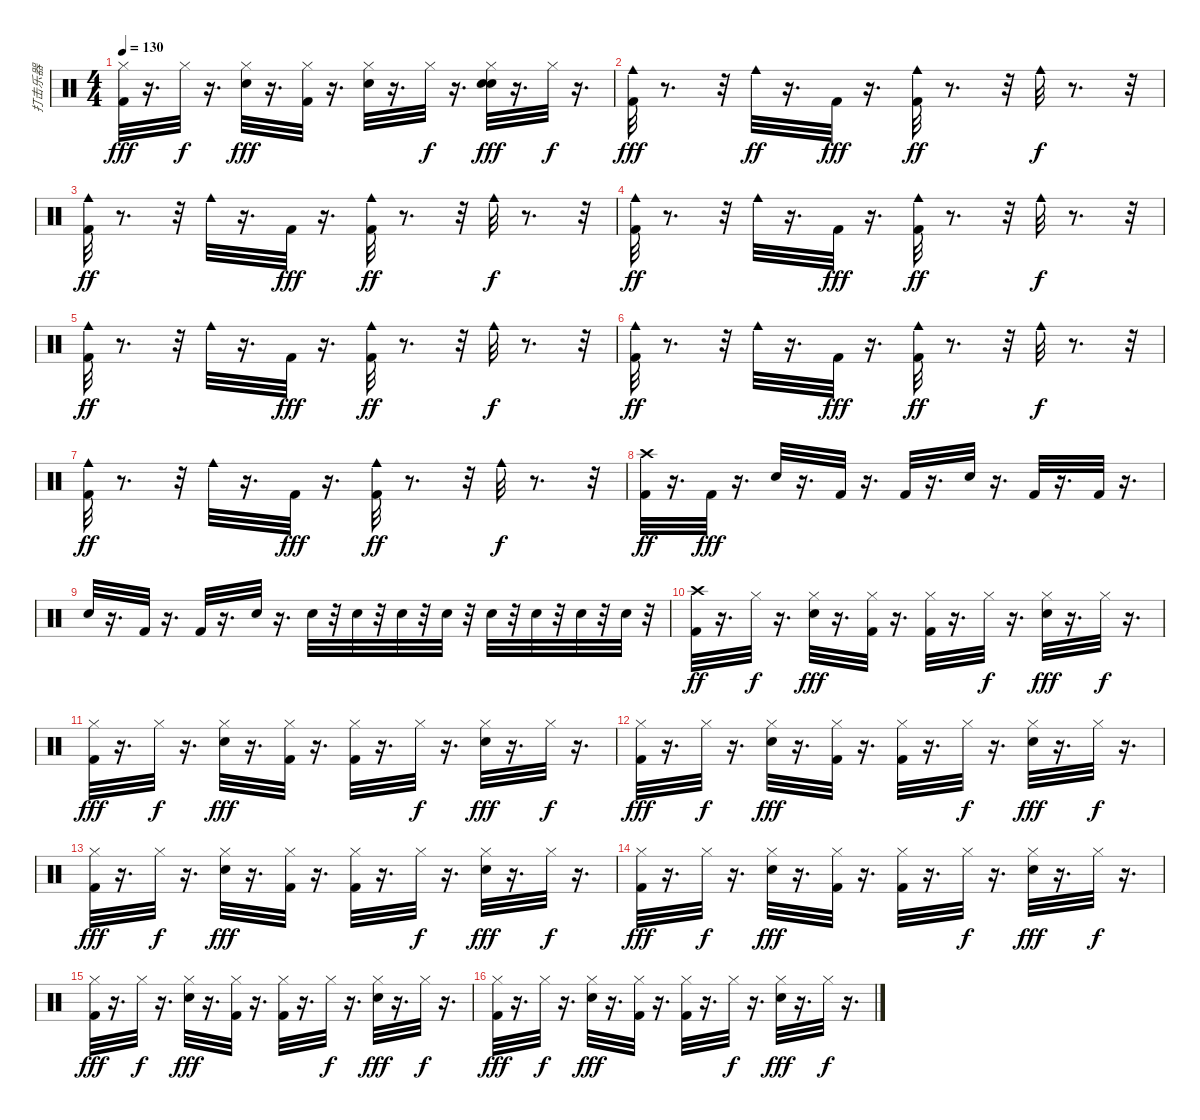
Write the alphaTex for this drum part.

\track ("打击乐器" "打击乐器") {instrument percussion}
\staff {score}
\articulation defaults
\ts (4 4)
\tempo 130
\clef neutral
\ks c
("Kick (hit) 2" "Hi-Hat (closed)").32{dy fff} r.16{d} "Hi-Hat (closed)".32{dy f} r.16{d} ("Hi-Hat (closed)" "Electric Snare (hit)").32{dy fff} r.16{d} ("Kick (hit) 2" "Hi-Hat (closed)").32 r.16{d} ("Electric Snare (hit)" "Hi-Hat (closed)").32 r.16{d} "Hi-Hat (closed)".32{dy f} r.16{d} ("Electric Snare (hit)" "Hi-Hat (closed)" "Electric Snare (hit)").32{dy fff} r.16{d} "Hi-Hat (closed)".32{dy f} r.16{d} |
("Cowbell medium (hit)" "Kick (hit) 2").32{dy fff} r.8{d} r.32 "Cowbell medium (hit)".32{dy ff} r.16{d} "Kick (hit) 2".32{dy fff} r.16{d} ("Kick (hit) 2" "Cowbell medium (hit)").32{dy ff} r.8{d} r.32 "Cowbell medium (hit)".32{dy f} r.8{d} r.32 |
("Kick (hit) 2" "Cowbell medium (hit)").32{dy ff} r.8{d} r.32 "Cowbell medium (hit)".32 r.16{d} "Kick (hit) 2".32{dy fff} r.16{d} ("Kick (hit) 2" "Cowbell medium (hit)").32{dy ff} r.8{d} r.32 "Cowbell medium (hit)".32{dy f} r.8{d} r.32 |
("Kick (hit) 2" "Cowbell medium (hit)").32{dy ff} r.8{d} r.32 "Cowbell medium (hit)".32 r.16{d} "Kick (hit) 2".32{dy fff} r.16{d} ("Kick (hit) 2" "Cowbell medium (hit)").32{dy ff} r.8{d} r.32 "Cowbell medium (hit)".32{dy f} r.8{d} r.32 |
("Kick (hit) 2" "Cowbell medium (hit)").32{dy ff} r.8{d} r.32 "Cowbell medium (hit)".32 r.16{d} "Kick (hit) 2".32{dy fff} r.16{d} ("Kick (hit) 2" "Cowbell medium (hit)").32{dy ff} r.8{d} r.32 "Cowbell medium (hit)".32{dy f} r.8{d} r.32 |
("Kick (hit) 2" "Cowbell medium (hit)").32{dy ff} r.8{d} r.32 "Cowbell medium (hit)".32 r.16{d} "Kick (hit) 2".32{dy fff} r.16{d} ("Kick (hit) 2" "Cowbell medium (hit)").32{dy ff} r.8{d} r.32 "Cowbell medium (hit)".32{dy f} r.8{d} r.32 |
("Kick (hit) 2" "Cowbell medium (hit)").32{dy ff} r.8{d} r.32 "Cowbell medium (hit)".32 r.16{d} "Kick (hit) 2".32{dy fff} r.16{d} ("Kick (hit) 2" "Cowbell medium (hit)").32{dy ff} r.8{d} r.32 "Cowbell medium (hit)".32{dy f} r.8{d} r.32 |
("Kick (hit) 2" "Crash high (hit)").32{dy ff} r.16{d} "Kick (hit) 2".32{dy fff} r.16{d} "Electric Snare (hit)".32 r.16{d} "Kick (hit) 2".32 r.16{d} "Kick (hit) 2".32 r.16{d} "Electric Snare (hit)".32 r.16{d} "Kick (hit) 2".32 r.16{d} "Kick (hit) 2".32 r.16{d} |
"Electric Snare (hit)".32 r.16{d} "Kick (hit) 2".32 r.16{d} "Kick (hit) 2".32 r.16{d} "Electric Snare (hit)".32 r.16{d} "Electric Snare (hit)".32 r.32 "Snare (hit) 2".32 r.32 "Electric Snare (hit)".32 r.32 "Snare (hit) 2".32 r.32 "Electric Snare (hit)".32 r.32 "Snare (hit) 2".32 r.32 "Electric Snare (hit)".32 r.32 "Snare (hit) 2".32 r.32 |
("Kick (hit) 2" "Crash high (hit)").32{dy ff} r.16{d} "Hi-Hat (closed)".32{dy f} r.16{d} ("Hi-Hat (closed)" "Electric Snare (hit)").32{dy fff} r.16{d} ("Kick (hit) 2" "Hi-Hat (closed)").32 r.16{d} ("Kick (hit) 2" "Hi-Hat (closed)").32 r.16{d} "Hi-Hat (closed)".32{dy f} r.16{d} ("Hi-Hat (closed)" "Electric Snare (hit)").32{dy fff} r.16{d} "Hi-Hat (closed)".32{dy f} r.16{d} |
("Kick (hit) 2" "Hi-Hat (closed)").32{dy fff} r.16{d} "Hi-Hat (closed)".32{dy f} r.16{d} ("Hi-Hat (closed)" "Electric Snare (hit)").32{dy fff} r.16{d} ("Kick (hit) 2" "Hi-Hat (closed)").32 r.16{d} ("Kick (hit) 2" "Hi-Hat (closed)").32 r.16{d} "Hi-Hat (closed)".32{dy f} r.16{d} ("Hi-Hat (closed)" "Electric Snare (hit)").32{dy fff} r.16{d} "Hi-Hat (closed)".32{dy f} r.16{d} |
("Kick (hit) 2" "Hi-Hat (closed)").32{dy fff} r.16{d} "Hi-Hat (closed)".32{dy f} r.16{d} ("Hi-Hat (closed)" "Electric Snare (hit)").32{dy fff} r.16{d} ("Kick (hit) 2" "Hi-Hat (closed)").32 r.16{d} ("Kick (hit) 2" "Hi-Hat (closed)").32 r.16{d} "Hi-Hat (closed)".32{dy f} r.16{d} ("Hi-Hat (closed)" "Electric Snare (hit)").32{dy fff} r.16{d} "Hi-Hat (closed)".32{dy f} r.16{d} |
("Kick (hit) 2" "Hi-Hat (closed)").32{dy fff} r.16{d} "Hi-Hat (closed)".32{dy f} r.16{d} ("Hi-Hat (closed)" "Electric Snare (hit)").32{dy fff} r.16{d} ("Kick (hit) 2" "Hi-Hat (closed)").32 r.16{d} ("Kick (hit) 2" "Hi-Hat (closed)").32 r.16{d} "Hi-Hat (closed)".32{dy f} r.16{d} ("Hi-Hat (closed)" "Electric Snare (hit)").32{dy fff} r.16{d} "Hi-Hat (closed)".32{dy f} r.16{d} |
("Kick (hit) 2" "Hi-Hat (closed)").32{dy fff} r.16{d} "Hi-Hat (closed)".32{dy f} r.16{d} ("Hi-Hat (closed)" "Electric Snare (hit)").32{dy fff} r.16{d} ("Kick (hit) 2" "Hi-Hat (closed)").32 r.16{d} ("Kick (hit) 2" "Hi-Hat (closed)").32 r.16{d} "Hi-Hat (closed)".32{dy f} r.16{d} ("Hi-Hat (closed)" "Electric Snare (hit)").32{dy fff} r.16{d} "Hi-Hat (closed)".32{dy f} r.16{d} |
("Kick (hit) 2" "Hi-Hat (closed)").32{dy fff} r.16{d} "Hi-Hat (closed)".32{dy f} r.16{d} ("Hi-Hat (closed)" "Electric Snare (hit)").32{dy fff} r.16{d} ("Kick (hit) 2" "Hi-Hat (closed)").32 r.16{d} ("Kick (hit) 2" "Hi-Hat (closed)").32 r.16{d} "Hi-Hat (closed)".32{dy f} r.16{d} ("Hi-Hat (closed)" "Electric Snare (hit)").32{dy fff} r.16{d} "Hi-Hat (closed)".32{dy f} r.16{d} |
("Kick (hit) 2" "Hi-Hat (closed)").32{dy fff} r.16{d} "Hi-Hat (closed)".32{dy f} r.16{d} ("Hi-Hat (closed)" "Electric Snare (hit)").32{dy fff} r.16{d} ("Kick (hit) 2" "Hi-Hat (closed)").32 r.16{d} ("Kick (hit) 2" "Hi-Hat (closed)").32 r.16{d} "Hi-Hat (closed)".32{dy f} r.16{d} ("Hi-Hat (closed)" "Electric Snare (hit)").32{dy fff} r.16{d} "Hi-Hat (closed)".32{dy f} r.16{d}
